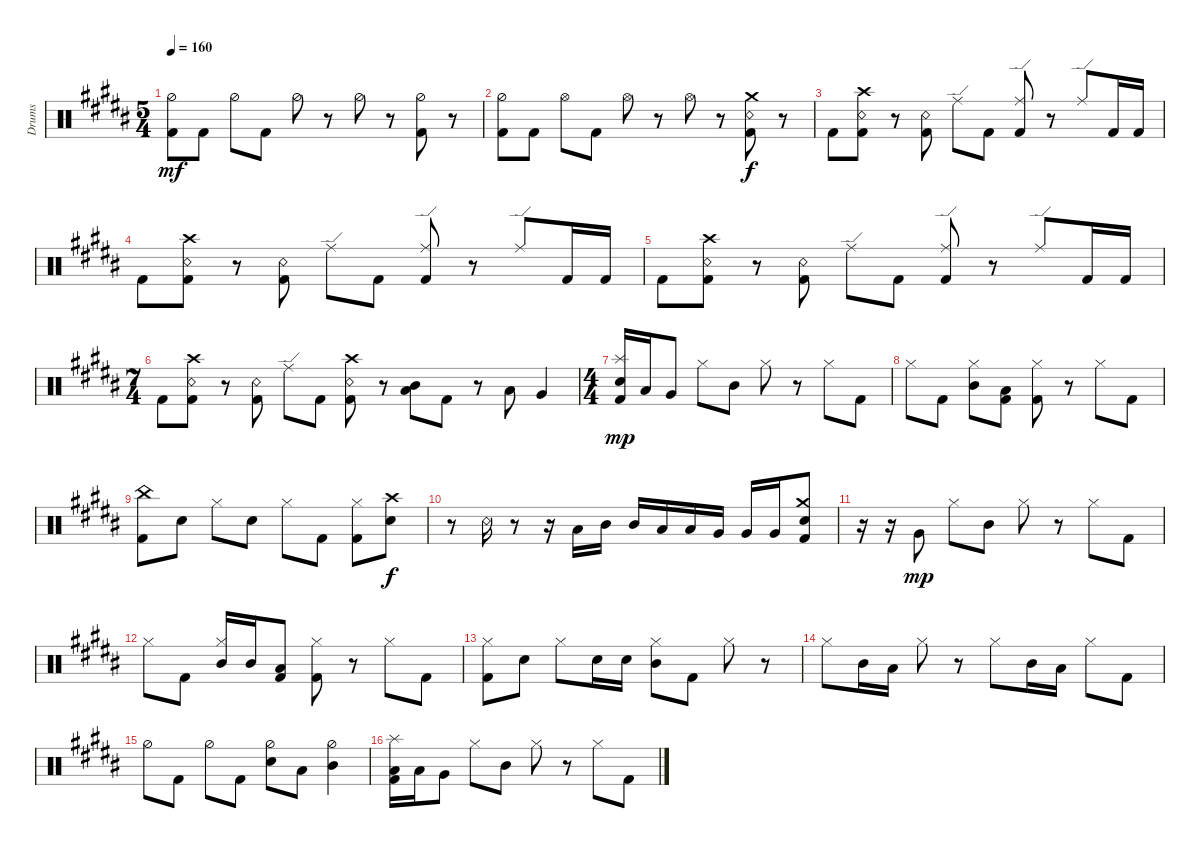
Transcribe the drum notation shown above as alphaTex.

\bracketExtendMode groupsimilarinstruments
\otherSystemsTrackNameOrientation horizontal
\track ("Drumkit" "Drums") {instrument percussion}
\staff {score}
\articulation defaults
\ts (5 4)
\tempo 160
\clef neutral
\ks b
("Kick (hit) 2"{acc bb} "Hi-Hat (half)"{acc bb}).8{dy mf beam Down} "Kick (hit) 2"{acc bb}.8{beam Down} "Hi-Hat (half)"{acc bb}.8{beam Down} "Kick (hit) 2"{acc bb}.8{beam Down} "Hi-Hat (half)"{acc bb}.8{beam Down} r.8{beam Down} "Hi-Hat (half)"{acc bb}.8{beam Down} r.8{beam Down} ("Hi-Hat (half)"{acc bb} "Kick (hit) 2"{acc bb}).8{beam Down} r.8{beam Down} |
("Kick (hit) 2"{acc bb} "Hi-Hat (half)"{acc bb}).8{beam Down} "Kick (hit) 2"{acc bb}.8{beam Down} "Hi-Hat (open)"{acc bb}.8{beam Down} "Kick (hit) 2"{acc bb}.8{beam Down} "Hi-Hat (open)"{acc bb}.8{beam Down} r.8{beam Down} "Hi-Hat (open)"{acc bb}.8{beam Down} r.8{beam Down} ("Kick (hit) 2"{acc bb} "Snare (rim shot)"{acc bb} "Crash medium (hit)"{acc bb}).8{dy f beam Down} r.8{beam Down} |
"Kick (hit) 2"{acc bb}.8{beam Down} ("Kick (hit) 2"{acc bb} "Snare (rim shot)"{acc bb} "Crash high (hit)"{acc bb}).8{beam Down} r.8{beam Down} ("Kick (hit) 2"{acc bb} "Snare (rim shot)"{acc bb}).8{beam Down} "Ride (edge)"{acc bb}.8{beam Down} "Kick (hit) 2"{acc bb}.8{beam Down} ("Kick (hit) 2"{acc bb} "Ride (edge)"{acc bb}).8{beam Up} r.8{beam Up} "Ride (edge)"{acc bb}.8{beam Up} "Kick (hit) 2"{acc bb}.16{beam Up} "Kick (hit) 2"{acc bb}.16{beam Up} |
"Kick (hit) 2"{acc bb}.8{beam Down} ("Kick (hit) 2"{acc bb} "Snare (rim shot)"{acc bb} "Crash high (hit)"{acc bb}).8{beam Down} r.8{beam Down} ("Kick (hit) 2"{acc bb} "Snare (rim shot)"{acc bb}).8{beam Down} "Ride (edge)"{acc bb}.8{beam Down} "Kick (hit) 2"{acc bb}.8{beam Down} ("Kick (hit) 2"{acc bb} "Ride (edge)"{acc bb}).8{beam Up} r.8{beam Up} "Ride (edge)"{acc bb}.8{beam Up} "Kick (hit) 2"{acc bb}.16{beam Up} "Kick (hit) 2"{acc bb}.16{beam Up} |
"Kick (hit) 2"{acc bb}.8{beam Down} ("Kick (hit) 2"{acc bb} "Snare (rim shot)"{acc bb} "Crash high (hit)"{acc bb}).8{beam Down} r.8{beam Down} ("Kick (hit) 2"{acc bb} "Snare (rim shot)"{acc bb}).8{beam Down} "Ride (edge)"{acc bb}.8{beam Down} "Kick (hit) 2"{acc bb}.8{beam Down} ("Kick (hit) 2"{acc bb} "Ride (edge)"{acc bb}).8{beam Up} r.8{beam Up} "Ride (edge)"{acc bb}.8{beam Up} "Kick (hit) 2"{acc bb}.16{beam Up} "Kick (hit) 2"{acc bb}.16{beam Up} |
\ts (7 4)
"Kick (hit) 2"{acc bb}.8{beam Down} ("Kick (hit) 2"{acc bb} "Snare (rim shot)"{acc bb} "Crash high (hit)"{acc bb}).8{beam Down} r.8{beam Down} ("Kick (hit) 2"{acc bb} "Snare (rim shot)"{acc bb}).8{beam Down} "Ride (edge)"{acc bb}.8{beam Down} "Kick (hit) 2"{acc bb}.8{beam Down} ("Kick (hit) 2"{acc bb} "Crash high (hit)"{acc bb} "Snare (rim shot)"{acc bb}).8{beam Down} r.8{beam Down} ("Mid Tom (hit)"{acc bb} "Low Tom (hit)"{acc bb}).8{beam Down} "Kick (hit) 2"{acc bb}.8{beam Down} r.8{beam Down} "Low Tom (hit)"{acc bb}.8{beam Up} "Very Low Tom (hit)"{acc bb}.4{beam Up} |
\ts (4 4)
("Kick (hit) 2"{acc bb} "Splash (hit)"{acc bb} "Snare (hit) 2"{acc bb}).16{dy mp beam Up} "Low Tom (hit)"{acc bb}.16{beam Up} "Very Low Tom (hit)"{acc bb}.8{beam Up} "Hi-Hat (closed)"{acc bb}.8{beam Down} "Mid Tom (hit)"{acc bb}.8{beam Down} "Hi-Hat (closed)"{acc bb}.8{beam Down} r.8{beam Down} "Hi-Hat (closed)"{acc bb}.8{beam Down} "Kick (hit) 2"{acc bb}.8{beam Down} |
"Hi-Hat (closed)"{acc bb}.8{beam Down} "Kick (hit) 2"{acc bb}.8{beam Down} ("Hi-Hat (closed)"{acc bb} "Mid Tom (hit)"{acc bb}).8{beam Down} ("Kick (hit) 2"{acc bb} "Low Tom (hit)"{acc bb}).8{beam Down} ("Kick (hit) 2"{acc bb} "Hi-Hat (closed)"{acc bb}).8{beam Down} r.8{beam Down} "Hi-Hat (closed)"{acc bb}.8{beam Down} "Kick (hit) 2"{acc bb}.8{beam Down} |
("Kick (hit) 2"{acc bb} "China (hit)"{acc bb}).8{beam Down} "Snare (hit) 2"{acc bb}.8{beam Down} "Hi-Hat (closed)"{acc bb}.8{beam Down} "Snare (hit) 2"{acc bb}.8{beam Down} "Hi-Hat (closed)"{acc bb}.8{beam Down} "Kick (hit) 2"{acc bb}.8{beam Down} ("Hi-Hat (closed)"{acc bb} "Kick (hit) 2"{acc bb}).8{beam Down} ("Snare (hit) 2"{acc bb} "Crash high (hit)"{acc bb}).8{dy f beam Down} |
r.8{beam Down} "Snare (rim shot)"{acc bb}.16{beam Down} r.8{beam Down} r.16{beam Down} "Low Tom (hit)"{acc bb}.16{beam Up} "Mid Tom (hit)"{acc bb}.16{beam Up} "Mid Tom (hit)"{acc bb}.16{beam Up} "Low Tom (hit)"{acc bb}.16{beam Up} "Low Tom (hit)"{acc bb}.16{beam Up} "Very Low Tom (hit)"{acc bb}.16{beam Up} "Very Low Tom (hit)"{acc bb}.16{beam Up} "Very Low Tom (hit)"{acc bb}.16{beam Up} ("Kick (hit) 2"{acc bb} "Snare (hit) 2"{acc bb} "Crash medium (hit)"{acc bb}).8{beam Up} |
r.16{beam Down} r.16{beam Down} "Very Low Tom (hit)"{acc bb}.8{dy mp beam Up} "Hi-Hat (closed)"{acc bb}.8{beam Down} "Mid Tom (hit)"{acc bb}.8{beam Down} "Hi-Hat (closed)"{acc bb}.8{beam Down} r.8{beam Down} "Hi-Hat (closed)"{acc bb}.8{beam Down} "Kick (hit) 2"{acc bb}.8{beam Down} |
"Hi-Hat (closed)"{acc bb}.8{beam Down} "Kick (hit) 2"{acc bb}.8{beam Down} ("Mid Tom (hit)"{acc bb} "Hi-Hat (closed)"{acc bb}).16{beam Up} "Mid Tom (hit)"{acc bb}.16{beam Up} ("Kick (hit) 2"{acc bb} "Low Tom (hit)"{acc bb}).8{beam Up} ("Kick (hit) 2"{acc bb} "Hi-Hat (closed)"{acc bb}).8{beam Down} r.8{beam Down} "Hi-Hat (closed)"{acc bb}.8{beam Down} "Kick (hit) 2"{acc bb}.8{beam Down} |
("Kick (hit) 2"{acc bb} "Hi-Hat (closed)"{acc bb}).8{beam Down} "Snare (hit) 2"{acc bb}.8{beam Down} "Hi-Hat (closed)"{acc bb}.8{beam Down} "Snare (hit) 2"{acc bb}.16{beam Down} "Snare (hit) 2"{acc bb}.16{beam Down} ("Mid Tom (hit)"{acc bb} "Hi-Hat (closed)"{acc bb}).8{beam Down} "Kick (hit) 2"{acc bb}.8{beam Down} "Hi-Hat (closed)"{acc bb}.8{beam Down} r.8{beam Down} |
"Hi-Hat (closed)"{acc bb}.8{beam Down} "Mid Tom (hit)"{acc bb}.16{beam Down} "Low Tom (hit)"{acc bb}.16{beam Down} "Hi-Hat (closed)"{acc bb}.8{beam Down} r.8{beam Down} "Hi-Hat (closed)"{acc bb}.8{beam Down} "Mid Tom (hit)"{acc bb}.16{beam Down} "Low Tom (hit)"{acc bb}.16{beam Down} "Hi-Hat (closed)"{acc bb}.8{beam Down} "Kick (hit) 2"{acc bb}.8{beam Down} |
"Hi-Hat (half)"{acc bb}.8{beam Down} "Kick (hit) 2"{acc bb}.8{beam Down} "Hi-Hat (half)"{acc bb}.8{beam Down} "Kick (hit) 2"{acc bb}.8{beam Down} ("Hi-Hat (half)"{acc bb} "Snare (hit) 2"{acc bb}).8{beam Down} "Low Tom (hit)"{acc bb}.8{beam Down} ("Hi-Hat (half)"{acc bb} "Mid Tom (hit)"{acc bb}).4{beam Down} |
("Low Tom (hit)"{acc bb} "Kick (hit) 2"{acc bb} "Splash (hit)"{acc bb}).16{beam Down} "Low Tom (hit)"{acc bb}.16{beam Down} "Very Low Tom (hit)"{acc bb}.8{beam Down} "Hi-Hat (closed)"{acc bb}.8{beam Down} "Mid Tom (hit)"{acc bb}.8{beam Down} "Hi-Hat (closed)"{acc bb}.8{beam Down} r.8{beam Down} "Hi-Hat (closed)"{acc bb}.8{beam Down} "Kick (hit) 2"{acc bb}.8{beam Down}
